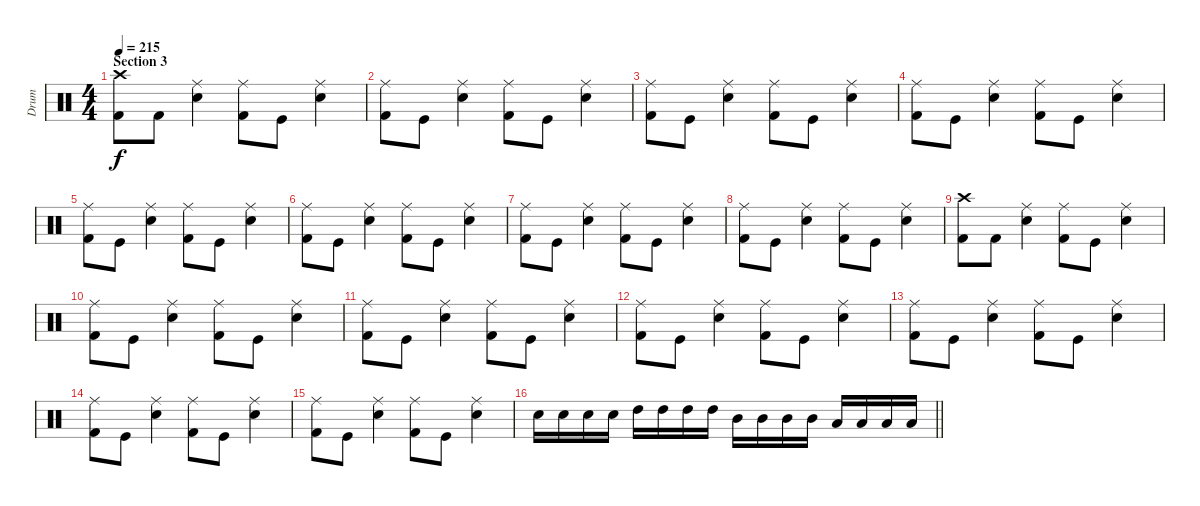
\track ("Drum" "Drum") {instrument percussion}
\staff {score}
\articulation defaults
\ts (4 4)
\section ("" "Section 3")
\tempo 215
\clef neutral
\ks c
("Kick (hit) 2" "Crash high (hit)").8{dy f} "Kick (hit) 2".8 ("Electric Snare (hit)" "Ride (middle)").4 ("Kick (hit) 2" "Ride (middle)").8 "Kick (hit)".8 ("Electric Snare (hit)" "Ride (middle)").4 |
("Kick (hit) 2" "Ride (middle)").8 "Kick (hit)".8 ("Electric Snare (hit)" "Ride (middle)").4 ("Kick (hit) 2" "Ride (middle)").8 "Kick (hit)".8 ("Electric Snare (hit)" "Ride (middle)").4 |
("Kick (hit) 2" "Ride (middle)").8 "Kick (hit)".8 ("Electric Snare (hit)" "Ride (middle)").4 ("Kick (hit) 2" "Ride (middle)").8 "Kick (hit)".8 ("Electric Snare (hit)" "Ride (middle)").4 |
("Kick (hit) 2" "Ride (middle)").8 "Kick (hit)".8 ("Electric Snare (hit)" "Ride (middle)").4 ("Kick (hit) 2" "Ride (middle)").8 "Kick (hit)".8 ("Electric Snare (hit)" "Ride (middle)").4 |
("Kick (hit) 2" "Ride (middle)").8 "Kick (hit)".8 ("Electric Snare (hit)" "Ride (middle)").4 ("Kick (hit) 2" "Ride (middle)").8 "Kick (hit)".8 ("Electric Snare (hit)" "Ride (middle)").4 |
("Kick (hit) 2" "Ride (middle)").8 "Kick (hit)".8 ("Electric Snare (hit)" "Ride (middle)").4 ("Kick (hit) 2" "Ride (middle)").8 "Kick (hit)".8 ("Electric Snare (hit)" "Ride (middle)").4 |
("Kick (hit) 2" "Ride (middle)").8 "Kick (hit)".8 ("Electric Snare (hit)" "Ride (middle)").4 ("Kick (hit) 2" "Ride (middle)").8 "Kick (hit)".8 ("Electric Snare (hit)" "Ride (middle)").4 |
("Kick (hit) 2" "Ride (middle)").8 "Kick (hit)".8 ("Electric Snare (hit)" "Ride (middle)").4 ("Kick (hit) 2" "Ride (middle)").8 "Kick (hit)".8 ("Electric Snare (hit)" "Ride (middle)").4 |
("Kick (hit) 2" "Crash high (hit)").8 "Kick (hit) 2".8 ("Electric Snare (hit)" "Ride (middle)").4 ("Kick (hit) 2" "Ride (middle)").8 "Kick (hit)".8 ("Electric Snare (hit)" "Ride (middle)").4 |
("Kick (hit) 2" "Ride (middle)").8 "Kick (hit)".8 ("Electric Snare (hit)" "Ride (middle)").4 ("Kick (hit) 2" "Ride (middle)").8 "Kick (hit)".8 ("Electric Snare (hit)" "Ride (middle)").4 |
("Kick (hit) 2" "Ride (middle)").8 "Kick (hit)".8 ("Electric Snare (hit)" "Ride (middle)").4 ("Kick (hit) 2" "Ride (middle)").8 "Kick (hit)".8 ("Electric Snare (hit)" "Ride (middle)").4 |
("Kick (hit) 2" "Ride (middle)").8 "Kick (hit)".8 ("Electric Snare (hit)" "Ride (middle)").4 ("Kick (hit) 2" "Ride (middle)").8 "Kick (hit)".8 ("Electric Snare (hit)" "Ride (middle)").4 |
("Kick (hit) 2" "Ride (middle)").8 "Kick (hit)".8 ("Electric Snare (hit)" "Ride (middle)").4 ("Kick (hit) 2" "Ride (middle)").8 "Kick (hit)".8 ("Electric Snare (hit)" "Ride (middle)").4 |
("Kick (hit) 2" "Ride (middle)").8 "Kick (hit)".8 ("Electric Snare (hit)" "Ride (middle)").4 ("Kick (hit) 2" "Ride (middle)").8 "Kick (hit)".8 ("Electric Snare (hit)" "Ride (middle)").4 |
("Kick (hit) 2" "Ride (middle)").8 "Kick (hit)".8 ("Electric Snare (hit)" "Ride (middle)").4 ("Kick (hit) 2" "Ride (middle)").8 "Kick (hit)".8 ("Electric Snare (hit)" "Ride (middle)").4 |
\barLineRight lightlight "Electric Snare (hit)".16 "Electric Snare (hit)".16 "Electric Snare (hit)".16 "Electric Snare (hit)".16 "High Tom (hit)".16 "High Tom (hit)".16 "High Tom (hit)".16 "High Tom (hit)".16 "Mid Tom (hit)".16 "Mid Tom (hit)".16 "Mid Tom (hit)".16 "Mid Tom (hit)".16 "Low Tom (hit)".16 "Low Tom (hit)".16 "Low Tom (hit)".16 "Low Tom (hit)".16
